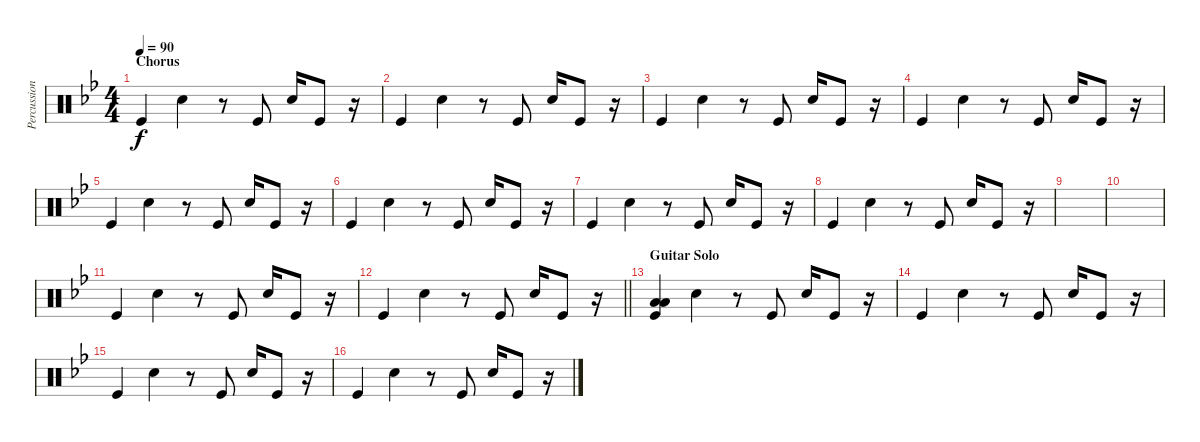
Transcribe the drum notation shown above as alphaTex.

\track ("Percussion" "Percussion") {instrument percussion}
\staff {score}
\articulation defaults
\ts (4 4)
\section ("" "Chorus")
\tempo 90
\clef neutral
\ks bb "Kick (hit)".4{dy f} "Electric Snare (hit)".4
r.8 "Kick (hit)".8 "Electric Snare (hit)".16 "Kick (hit)".8 r.16 |
"Kick (hit)".4 "Electric Snare (hit)".4 r.8 "Kick (hit)".8 "Electric Snare (hit)".16 "Kick (hit)".8 r.16 |
"Kick (hit)".4 "Electric Snare (hit)".4 r.8 "Kick (hit)".8 "Electric Snare (hit)".16 "Kick (hit)".8 r.16 |
"Kick (hit)".4 "Electric Snare (hit)".4 r.8 "Kick (hit)".8 "Electric Snare (hit)".16 "Kick (hit)".8 r.16 |
"Kick (hit)".4 "Electric Snare (hit)".4 r.8 "Kick (hit)".8 "Electric Snare (hit)".16 "Kick (hit)".8 r.16 |
"Kick (hit)".4 "Electric Snare (hit)".4 r.8 "Kick (hit)".8 "Electric Snare (hit)".16 "Kick (hit)".8 r.16 |
"Kick (hit)".4 "Electric Snare (hit)".4 r.8 "Kick (hit)".8 "Electric Snare (hit)".16 "Kick (hit)".8 r.16 |
"Kick (hit)".4 "Electric Snare (hit)".4 r.8 "Kick (hit)".8 "Electric Snare (hit)".16 "Kick (hit)".8 r.16 |
|
|
"Kick (hit)".4 "Electric Snare (hit)".4 r.8 "Kick (hit)".8 "Electric Snare (hit)".16 "Kick (hit)".8 r.16 |
\barLineRight lightlight "Kick (hit)".4 "Electric Snare (hit)".4
r.8 "Kick (hit)".8 "Electric Snare (hit)".16 "Kick (hit)".8 r.16 |
\section ("" "Guitar Solo")
("Low Tom (hit)" "Kick (hit)" "Low Tom (hit)").4 "Electric Snare (hit)".4 r.8 "Kick (hit)".8 "Electric Snare (hit)".16 "Kick (hit)".8 r.16 |
"Kick (hit)".4 "Electric Snare (hit)".4 r.8 "Kick (hit)".8 "Electric Snare (hit)".16 "Kick (hit)".8 r.16 |
"Kick (hit)".4 "Electric Snare (hit)".4 r.8 "Kick (hit)".8 "Electric Snare (hit)".16 "Kick (hit)".8 r.16 |
"Kick (hit)".4 "Electric Snare (hit)".4 r.8 "Kick (hit)".8 "Electric Snare (hit)".16 "Kick (hit)".8 r.16
